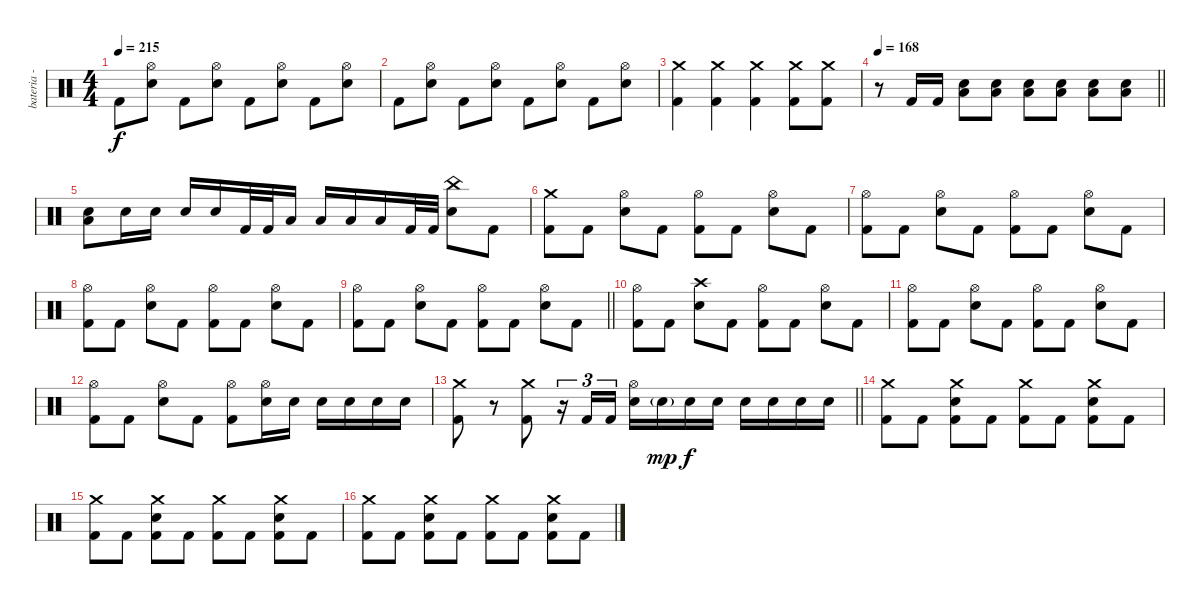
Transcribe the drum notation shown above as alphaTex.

\track ("bateria - drums" "bateria - ") {instrument percussion}
\staff {score}
\articulation defaults
\ts (4 4)
\tempo 215
\clef neutral
\ks c "Kick (hit) 2".8{dy f}
("Hi-Hat (open)" "Electric Snare (hit)").8 "Kick (hit) 2".8 ("Hi-Hat (open)" "Electric Snare (hit)").8 "Kick (hit) 2".8 ("Hi-Hat (open)" "Electric Snare (hit)").8 "Kick (hit) 2".8 ("Hi-Hat (open)" "Electric Snare (hit)").8 |
"Kick (hit) 2".8 ("Hi-Hat (open)" "Electric Snare (hit)").8 "Kick (hit) 2".8 ("Hi-Hat (open)" "Electric Snare (hit)").8 "Kick (hit) 2".8 ("Hi-Hat (open)" "Electric Snare (hit)").8 "Kick (hit) 2".8 ("Hi-Hat (open)" "Electric Snare (hit)").8 |
("Crash medium (hit)" "Kick (hit) 2").4 ("Crash medium (hit)" "Kick (hit) 2").4 ("Crash medium (hit)" "Kick (hit) 2").4 ("Crash medium (hit)" "Kick (hit) 2").8 ("Crash medium (hit)" "Kick (hit) 2").8 |
\tempo 168
\barLineRight lightlight
r.8 "Kick (hit) 2".16 "Kick (hit) 2".16 ("Low Floor Tom (hit)" "Electric Snare (hit)").8 ("Low Floor Tom (hit)" "Electric Snare (hit)").8 ("Low Floor Tom (hit)" "Electric Snare (hit)").8 ("Low Floor Tom (hit)" "Electric Snare (hit)").8 ("Low Floor Tom (hit)" "Electric Snare (hit)").8 ("Low Floor Tom (hit)" "Electric Snare (hit)").8 |
("Low Floor Tom (hit)" "Electric Snare (hit)").8 "Electric Snare (hit)".16 "Electric Snare (hit)".16 "Electric Snare (hit)".16 "Electric Snare (hit)".16 "Kick (hit) 2".32 "Kick (hit) 2".32 "Low Tom (hit)".16 "Low Tom (hit)".16 "Low Tom (hit)".16 "Low Tom (hit)".16 "Kick (hit) 2".32 "Kick (hit) 2".32 ("China (hit)" "Electric Snare (hit)").8 "Kick (hit) 2".8 |
("Crash medium (hit)" "Kick (hit) 2").8 "Kick (hit) 2".8 ("Hi-Hat (open)" "Electric Snare (hit)").8 "Kick (hit) 2".8 ("Hi-Hat (open)" "Kick (hit) 2").8 "Kick (hit) 2".8 ("Hi-Hat (open)" "Electric Snare (hit)").8 "Kick (hit) 2".8 |
("Hi-Hat (open)" "Kick (hit) 2").8 "Kick (hit) 2".8 ("Hi-Hat (open)" "Electric Snare (hit)").8 "Kick (hit) 2".8 ("Hi-Hat (open)" "Kick (hit) 2").8 "Kick (hit) 2".8 ("Hi-Hat (open)" "Electric Snare (hit)").8 "Kick (hit) 2".8 |
("Hi-Hat (open)" "Kick (hit) 2").8 "Kick (hit) 2".8 ("Hi-Hat (open)" "Electric Snare (hit)").8 "Kick (hit) 2".8 ("Hi-Hat (open)" "Kick (hit) 2").8 "Kick (hit) 2".8 ("Hi-Hat (open)" "Electric Snare (hit)").8 "Kick (hit) 2".8 |
\barLineRight lightlight
("Hi-Hat (open)" "Kick (hit) 2").8 "Kick (hit) 2".8 ("Hi-Hat (open)" "Electric Snare (hit)").8 "Kick (hit) 2".8 ("Hi-Hat (open)" "Kick (hit) 2").8 "Kick (hit) 2".8 ("Hi-Hat (open)" "Electric Snare (hit)").8 "Kick (hit) 2".8 |
("Hi-Hat (open)" "Kick (hit) 2").8 "Kick (hit) 2".8 ("Crash high (hit)" "Electric Snare (hit)").8 "Kick (hit) 2".8 ("Hi-Hat (open)" "Kick (hit) 2").8 "Kick (hit) 2".8 ("Hi-Hat (open)" "Electric Snare (hit)").8 "Kick (hit) 2".8 |
("Hi-Hat (open)" "Kick (hit) 2").8 "Kick (hit) 2".8 ("Hi-Hat (open)" "Electric Snare (hit)").8 "Kick (hit) 2".8 ("Hi-Hat (open)" "Kick (hit) 2").8 "Kick (hit) 2".8 ("Hi-Hat (open)" "Electric Snare (hit)").8 "Kick (hit) 2".8 |
("Hi-Hat (open)" "Kick (hit) 2").8 "Kick (hit) 2".8 ("Hi-Hat (open)" "Electric Snare (hit)").8 "Kick (hit) 2".8 ("Hi-Hat (open)" "Kick (hit) 2").8 ("Hi-Hat (open)" "Electric Snare (hit)").16 "Electric Snare (hit)".16 "Electric Snare (hit)".16 "Electric Snare (hit)".16 "Electric Snare (hit)".16 "Electric Snare (hit)".16 |
\barLineRight lightlight
("Crash medium (hit)" "Kick (hit) 2").8 r.8 ("Crash medium (hit)" "Kick (hit) 2").8 r.16{tu (3 2)} "Kick (hit) 2".16{tu (3 2)} "Kick (hit) 2".16{tu (3 2)} ("Hi-Hat (open)" "Electric Snare (hit)").16 "Electric Snare (hit)"{g}.16{dy mp} "Electric Snare (hit)".16{dy f} "Electric Snare (hit)".16 "Electric Snare (hit)".16 "Electric Snare (hit)".16 "Electric Snare (hit)".16 "Electric Snare (hit)".16 |
("Crash medium (hit)" "Kick (hit) 2").8 "Kick (hit) 2".8 ("Crash medium (hit)" "Electric Snare (hit)" "Kick (hit) 2").8 "Kick (hit) 2".8 ("Crash medium (hit)" "Kick (hit) 2").8 "Kick (hit) 2".8 ("Crash medium (hit)" "Electric Snare (hit)" "Kick (hit) 2").8 "Kick (hit) 2".8 |
("Crash medium (hit)" "Kick (hit) 2").8 "Kick (hit) 2".8 ("Crash medium (hit)" "Electric Snare (hit)" "Kick (hit) 2").8 "Kick (hit) 2".8 ("Crash medium (hit)" "Kick (hit) 2").8 "Kick (hit) 2".8 ("Crash medium (hit)" "Electric Snare (hit)" "Kick (hit) 2").8 "Kick (hit) 2".8 |
("Crash medium (hit)" "Kick (hit) 2").8 "Kick (hit) 2".8 ("Crash medium (hit)" "Electric Snare (hit)" "Kick (hit) 2").8 "Kick (hit) 2".8 ("Crash medium (hit)" "Kick (hit) 2").8 "Kick (hit) 2".8 ("Crash medium (hit)" "Electric Snare (hit)" "Kick (hit) 2").8 "Kick (hit) 2".8
